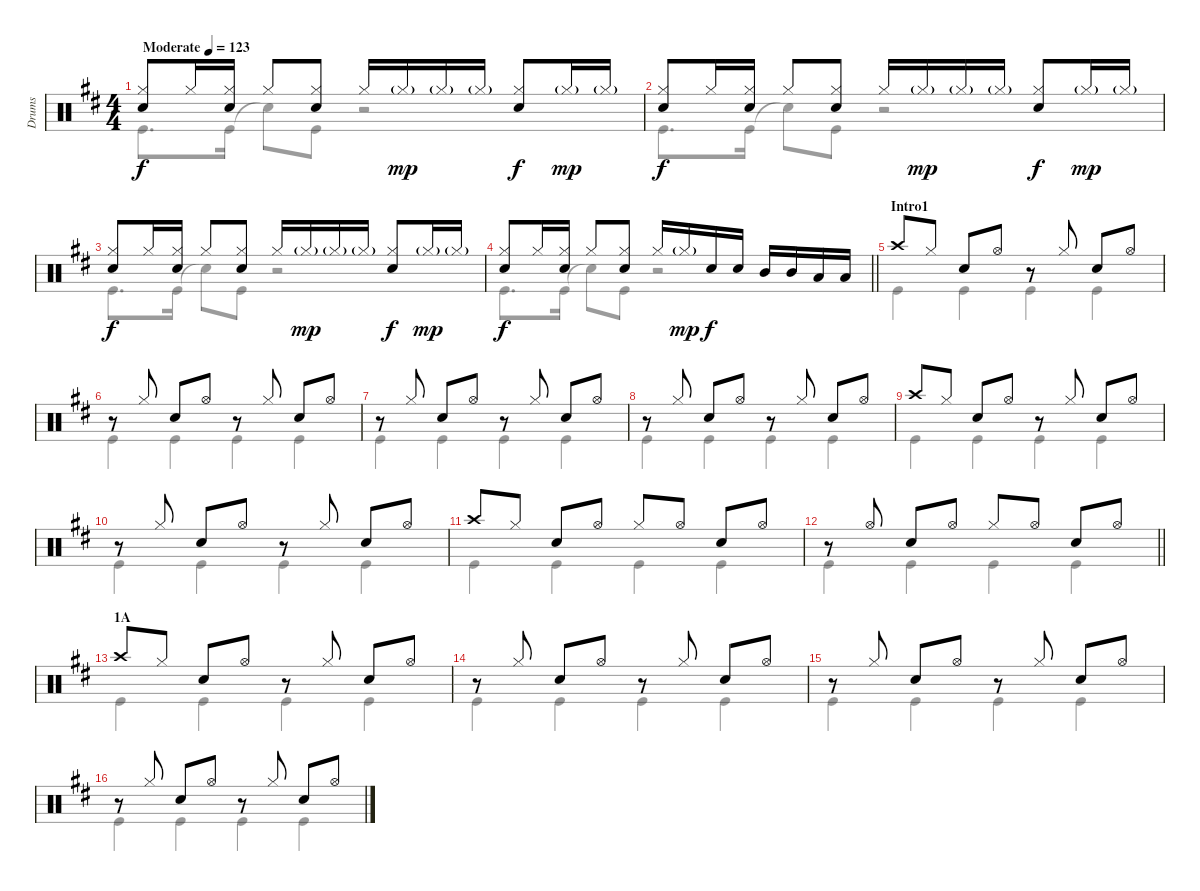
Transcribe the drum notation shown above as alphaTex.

\track ("Drums" "Drums") {instrument percussion}
\staff {score}
\articulation defaults
\voice
\ts (4 4)
\tempo (123 "Moderate")
\clef neutral
\ks d
("Hi-Hat (closed)" "Snare (hit) 2").8{dy f} "Hi-Hat (closed)".16 ("Hi-Hat (closed)" "Snare (hit) 2").16 "Hi-Hat (closed)".8 ("Hi-Hat (closed)" "Snare (hit) 2").8 "Hi-Hat (closed)".16 "Hi-Hat (closed)"{g}.16{dy mp} "Hi-Hat (closed)"{g}.16 "Hi-Hat (closed)"{g}.16 ("Hi-Hat (closed)" "Snare (hit) 2").8{dy f} "Hi-Hat (closed)"{g}.16{dy mp} "Hi-Hat (closed)"{g}.16 |
("Hi-Hat (closed)" "Snare (hit) 2").8{dy f} "Hi-Hat (closed)".16 ("Hi-Hat (closed)" "Snare (hit) 2").16 "Hi-Hat (closed)".8 ("Hi-Hat (closed)" "Snare (hit) 2").8 "Hi-Hat (closed)".16 "Hi-Hat (closed)"{g}.16{dy mp} "Hi-Hat (closed)"{g}.16 "Hi-Hat (closed)"{g}.16 ("Hi-Hat (closed)" "Snare (hit) 2").8{dy f} "Hi-Hat (closed)"{g}.16{dy mp} "Hi-Hat (closed)"{g}.16 |
("Hi-Hat (closed)" "Snare (hit) 2").8{dy f} "Hi-Hat (closed)".16 ("Hi-Hat (closed)" "Snare (hit) 2").16 "Hi-Hat (closed)".8 ("Hi-Hat (closed)" "Snare (hit) 2").8 "Hi-Hat (closed)".16 "Hi-Hat (closed)"{g}.16{dy mp} "Hi-Hat (closed)"{g}.16 "Hi-Hat (closed)"{g}.16 ("Hi-Hat (closed)" "Snare (hit) 2").8{dy f} "Hi-Hat (closed)"{g}.16{dy mp} "Hi-Hat (closed)"{g}.16 |
\barLineRight lightlight
("Hi-Hat (closed)" "Snare (hit) 2").8{dy f} "Hi-Hat (closed)".16 ("Hi-Hat (closed)" "Snare (hit) 2").16 "Hi-Hat (closed)".8 ("Hi-Hat (closed)" "Snare (hit) 2").8 "Hi-Hat (closed)".16 "Hi-Hat (closed)"{g}.16{dy mp} "Snare (hit) 2".16{dy f} "Snare (hit) 2".16 "Mid Tom (hit)".16 "Mid Tom (hit)".16 "Low Tom (hit)".16 "Low Tom (hit)".16 |
\section ("" "Intro1")
"Crash high (hit)".8 "Hi-Hat (closed)".8 "Snare (hit) 2".8 "Hi-Hat (open)".8 r.8 "Hi-Hat (closed)".8 "Snare (hit) 2".8 "Hi-Hat (open)".8 |
r.8 "Hi-Hat (closed)".8 "Snare (hit) 2".8 "Hi-Hat (open)".8 r.8 "Hi-Hat (closed)".8 "Snare (hit) 2".8 "Hi-Hat (open)".8 |
r.8 "Hi-Hat (closed)".8 "Snare (hit) 2".8 "Hi-Hat (open)".8 r.8 "Hi-Hat (closed)".8 "Snare (hit) 2".8 "Hi-Hat (open)".8 |
r.8 "Hi-Hat (closed)".8 "Snare (hit) 2".8 "Hi-Hat (open)".8 r.8 "Hi-Hat (closed)".8 "Snare (hit) 2".8 "Hi-Hat (open)".8 |
"Crash high (hit)".8 "Hi-Hat (closed)".8 "Snare (hit) 2".8 "Hi-Hat (open)".8 r.8 "Hi-Hat (closed)".8 "Snare (hit) 2".8 "Hi-Hat (open)".8 |
r.8 "Hi-Hat (closed)".8 "Snare (hit) 2".8 "Hi-Hat (open)".8 r.8 "Hi-Hat (closed)".8 "Snare (hit) 2".8 "Hi-Hat (open)".8 |
"Crash high (hit)".8 "Hi-Hat (closed)".8 "Snare (hit) 2".8 "Hi-Hat (open)".8 "Hi-Hat (closed)".8 "Hi-Hat (open)".8 "Snare (hit) 2".8 "Hi-Hat (open)".8 |
\barLineRight lightlight
r.8 "Hi-Hat (open)".8 "Snare (hit) 2".8 "Hi-Hat (open)".8 "Hi-Hat (closed)".8 "Hi-Hat (open)".8 "Snare (hit) 2".8 "Hi-Hat (open)".8 |
\section ("" "1A")
"Crash high (hit)".8 "Hi-Hat (closed)".8 "Snare (hit) 2".8 "Hi-Hat (open)".8 r.8 "Hi-Hat (closed)".8 "Snare (hit) 2".8 "Hi-Hat (open)".8 |
r.8 "Hi-Hat (closed)".8 "Snare (hit) 2".8 "Hi-Hat (open)".8 r.8 "Hi-Hat (closed)".8 "Snare (hit) 2".8 "Hi-Hat (open)".8 |
r.8 "Hi-Hat (closed)".8 "Snare (hit) 2".8 "Hi-Hat (open)".8 r.8 "Hi-Hat (closed)".8 "Snare (hit) 2".8 "Hi-Hat (open)".8 |
r.8 "Hi-Hat (closed)".8 "Snare (hit) 2".8 "Hi-Hat (open)".8 r.8 "Hi-Hat (closed)".8 "Snare (hit) 2".8 "Hi-Hat (open)".8
\voice
\clef neutral
\ottava regular
\simile none
\ks d "Kick (hit)".8{d dy f} "Kick (hit)".16 "Snare (hit)"{t}.8 "Kick (hit)".8
r.2 |
"Kick (hit)".8{d} "Kick (hit)".16 "Snare (hit)"{t}.8 "Kick (hit)".8 r.2 |
"Kick (hit)".8{d} "Kick (hit)".16 "Snare (hit)"{t}.8 "Kick (hit)".8 r.2 |
\barLineRight lightlight "Kick (hit)".8{d} "Kick (hit)".16 "Snare (hit)"{t}.8 "Kick (hit)".8
r.2 |
"Kick (hit)".4 "Kick (hit)".4 "Kick (hit)".4 "Kick (hit)".4 |
"Kick (hit)".4 "Kick (hit)".4 "Kick (hit)".4 "Kick (hit)".4 |
"Kick (hit)".4 "Kick (hit)".4 "Kick (hit)".4 "Kick (hit)".4 |
"Kick (hit)".4 "Kick (hit)".4 "Kick (hit)".4 "Kick (hit)".4 |
"Kick (hit)".4 "Kick (hit)".4 "Kick (hit)".4 "Kick (hit)".4 |
"Kick (hit)".4 "Kick (hit)".4 "Kick (hit)".4 "Kick (hit)".4 |
"Kick (hit)".4 "Kick (hit)".4 "Kick (hit)".4 "Kick (hit)".4 |
\barLineRight lightlight "Kick (hit)".4 "Kick (hit)".4 "Kick (hit)".4 "Kick (hit)".4
|
"Kick (hit)".4 "Kick (hit)".4 "Kick (hit)".4 "Kick (hit)".4 |
"Kick (hit)".4 "Kick (hit)".4 "Kick (hit)".4 "Kick (hit)".4 |
"Kick (hit)".4 "Kick (hit)".4 "Kick (hit)".4 "Kick (hit)".4 |
"Kick (hit)".4 "Kick (hit)".4 "Kick (hit)".4 "Kick (hit)".4
